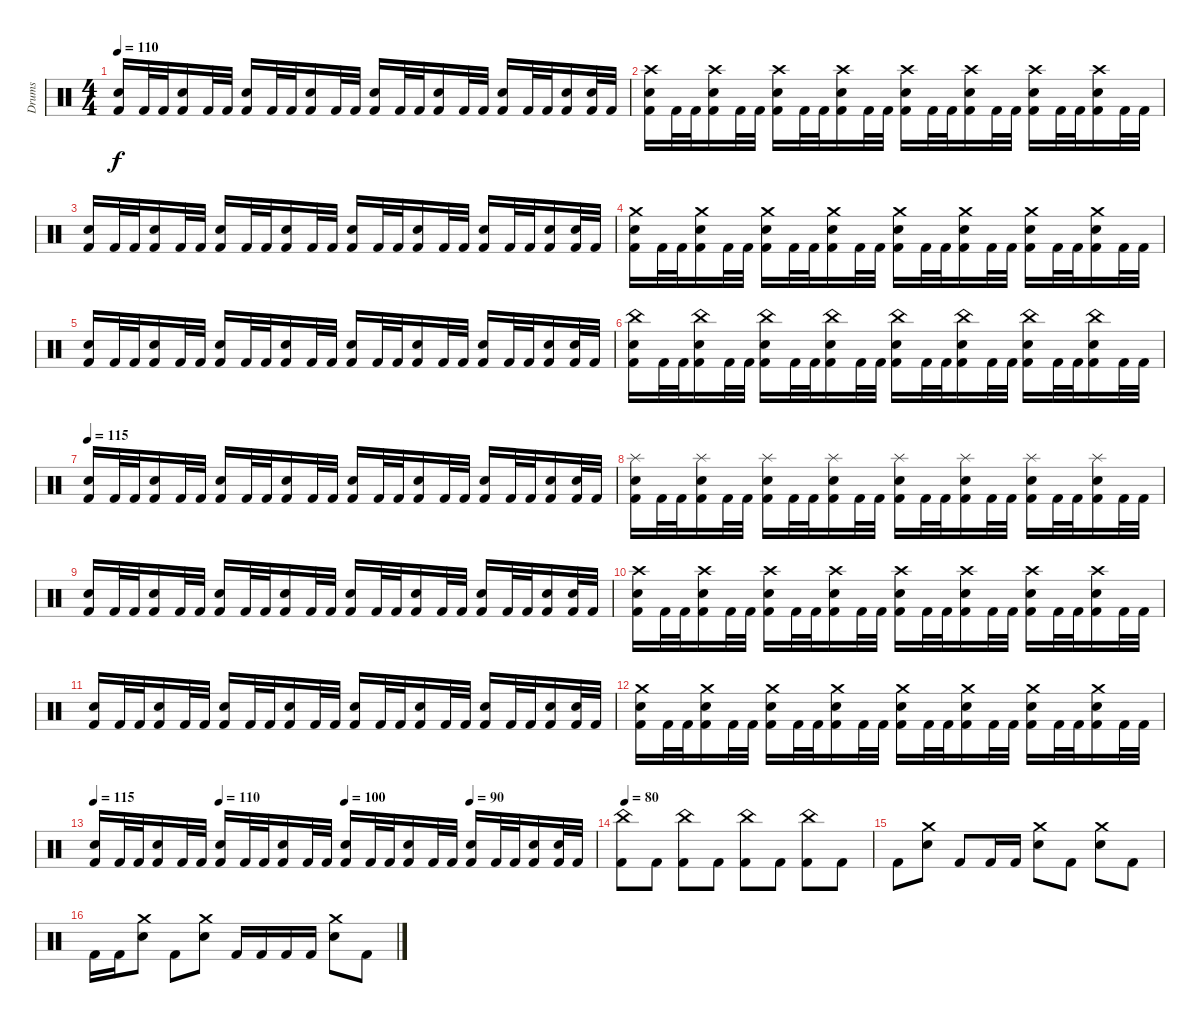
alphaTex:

\track ("Drums" "Drums") {instrument percussion}
\staff {score}
\articulation defaults
\ts (4 4)
\tempo 110
\clef neutral
\ks c
("Electric Snare (hit)" "Kick (hit) 2").16{dy f} "Kick (hit) 2".32 "Kick (hit) 2".32 ("Electric Snare (hit)" "Kick (hit) 2").16 "Kick (hit) 2".32 "Kick (hit) 2".32 ("Electric Snare (hit)" "Kick (hit) 2").16 "Kick (hit) 2".32 "Kick (hit) 2".32 ("Electric Snare (hit)" "Kick (hit) 2").16 "Kick (hit) 2".32 "Kick (hit) 2".32 ("Electric Snare (hit)" "Kick (hit) 2").16 "Kick (hit) 2".32 "Kick (hit) 2".32 ("Electric Snare (hit)" "Kick (hit) 2").16 "Kick (hit) 2".32 "Kick (hit) 2".32 ("Electric Snare (hit)" "Kick (hit) 2").16 "Kick (hit) 2".32 "Kick (hit) 2".32 ("Electric Snare (hit)" "Kick (hit) 2").16 ("Electric Snare (hit)" "Kick (hit) 2").32 "Kick (hit) 2".32 |
("Crash high (hit)" "Electric Snare (hit)" "Kick (hit) 2").16 "Kick (hit) 2".32 "Kick (hit) 2".32 ("Crash high (hit)" "Electric Snare (hit)" "Kick (hit) 2").16 "Kick (hit) 2".32 "Kick (hit) 2".32 ("Crash high (hit)" "Electric Snare (hit)" "Kick (hit) 2").16 "Kick (hit) 2".32 "Kick (hit) 2".32 ("Crash high (hit)" "Electric Snare (hit)" "Kick (hit) 2").16 "Kick (hit) 2".32 "Kick (hit) 2".32 ("Crash high (hit)" "Electric Snare (hit)" "Kick (hit) 2").16 "Kick (hit) 2".32 "Kick (hit) 2".32 ("Crash high (hit)" "Electric Snare (hit)" "Kick (hit) 2").16 "Kick (hit) 2".32 "Kick (hit) 2".32 ("Crash high (hit)" "Electric Snare (hit)" "Kick (hit) 2").16 "Kick (hit) 2".32 "Kick (hit) 2".32 ("Crash high (hit)" "Electric Snare (hit)" "Kick (hit) 2").16 "Kick (hit) 2".32 "Kick (hit) 2".32 |
("Electric Snare (hit)" "Kick (hit) 2").16 "Kick (hit) 2".32 "Kick (hit) 2".32 ("Electric Snare (hit)" "Kick (hit) 2").16 "Kick (hit) 2".32 "Kick (hit) 2".32 ("Electric Snare (hit)" "Kick (hit) 2").16 "Kick (hit) 2".32 "Kick (hit) 2".32 ("Electric Snare (hit)" "Kick (hit) 2").16 "Kick (hit) 2".32 "Kick (hit) 2".32 ("Electric Snare (hit)" "Kick (hit) 2").16 "Kick (hit) 2".32 "Kick (hit) 2".32 ("Electric Snare (hit)" "Kick (hit) 2").16 "Kick (hit) 2".32 "Kick (hit) 2".32 ("Electric Snare (hit)" "Kick (hit) 2").16 "Kick (hit) 2".32 "Kick (hit) 2".32 ("Electric Snare (hit)" "Kick (hit) 2").16 ("Electric Snare (hit)" "Kick (hit) 2").32 "Kick (hit) 2".32 |
("Crash medium (hit)" "Electric Snare (hit)" "Kick (hit) 2").16 "Kick (hit) 2".32 "Kick (hit) 2".32 ("Crash medium (hit)" "Electric Snare (hit)" "Kick (hit) 2").16 "Kick (hit) 2".32 "Kick (hit) 2".32 ("Crash medium (hit)" "Electric Snare (hit)" "Kick (hit) 2").16 "Kick (hit) 2".32 "Kick (hit) 2".32 ("Crash medium (hit)" "Electric Snare (hit)" "Kick (hit) 2").16 "Kick (hit) 2".32 "Kick (hit) 2".32 ("Crash medium (hit)" "Electric Snare (hit)" "Kick (hit) 2").16 "Kick (hit) 2".32 "Kick (hit) 2".32 ("Crash medium (hit)" "Electric Snare (hit)" "Kick (hit) 2").16 "Kick (hit) 2".32 "Kick (hit) 2".32 ("Crash medium (hit)" "Electric Snare (hit)" "Kick (hit) 2").16 "Kick (hit) 2".32 "Kick (hit) 2".32 ("Crash medium (hit)" "Electric Snare (hit)" "Kick (hit) 2").16 "Kick (hit) 2".32 "Kick (hit) 2".32 |
("Electric Snare (hit)" "Kick (hit) 2").16 "Kick (hit) 2".32 "Kick (hit) 2".32 ("Electric Snare (hit)" "Kick (hit) 2").16 "Kick (hit) 2".32 "Kick (hit) 2".32 ("Electric Snare (hit)" "Kick (hit) 2").16 "Kick (hit) 2".32 "Kick (hit) 2".32 ("Electric Snare (hit)" "Kick (hit) 2").16 "Kick (hit) 2".32 "Kick (hit) 2".32 ("Electric Snare (hit)" "Kick (hit) 2").16 "Kick (hit) 2".32 "Kick (hit) 2".32 ("Electric Snare (hit)" "Kick (hit) 2").16 "Kick (hit) 2".32 "Kick (hit) 2".32 ("Electric Snare (hit)" "Kick (hit) 2").16 "Kick (hit) 2".32 "Kick (hit) 2".32 ("Electric Snare (hit)" "Kick (hit) 2").16 ("Electric Snare (hit)" "Kick (hit) 2").32 "Kick (hit) 2".32 |
("China (hit)" "Electric Snare (hit)" "Kick (hit) 2").16 "Kick (hit) 2".32 "Kick (hit) 2".32 ("China (hit)" "Electric Snare (hit)" "Kick (hit) 2").16 "Kick (hit) 2".32 "Kick (hit) 2".32 ("China (hit)" "Electric Snare (hit)" "Kick (hit) 2").16 "Kick (hit) 2".32 "Kick (hit) 2".32 ("China (hit)" "Electric Snare (hit)" "Kick (hit) 2").16 "Kick (hit) 2".32 "Kick (hit) 2".32 ("China (hit)" "Electric Snare (hit)" "Kick (hit) 2").16 "Kick (hit) 2".32 "Kick (hit) 2".32 ("China (hit)" "Electric Snare (hit)" "Kick (hit) 2").16 "Kick (hit) 2".32 "Kick (hit) 2".32 ("China (hit)" "Electric Snare (hit)" "Kick (hit) 2").16 "Kick (hit) 2".32 "Kick (hit) 2".32 ("China (hit)" "Electric Snare (hit)" "Kick (hit) 2").16 "Kick (hit) 2".32 "Kick (hit) 2".32 |
\tempo 115
("Electric Snare (hit)" "Kick (hit) 2").16 "Kick (hit) 2".32 "Kick (hit) 2".32 ("Electric Snare (hit)" "Kick (hit) 2").16 "Kick (hit) 2".32 "Kick (hit) 2".32 ("Electric Snare (hit)" "Kick (hit) 2").16 "Kick (hit) 2".32 "Kick (hit) 2".32 ("Electric Snare (hit)" "Kick (hit) 2").16 "Kick (hit) 2".32 "Kick (hit) 2".32 ("Electric Snare (hit)" "Kick (hit) 2").16 "Kick (hit) 2".32 "Kick (hit) 2".32 ("Electric Snare (hit)" "Kick (hit) 2").16 "Kick (hit) 2".32 "Kick (hit) 2".32 ("Electric Snare (hit)" "Kick (hit) 2").16 "Kick (hit) 2".32 "Kick (hit) 2".32 ("Electric Snare (hit)" "Kick (hit) 2").16 ("Electric Snare (hit)" "Kick (hit) 2").32 "Kick (hit) 2".32 |
("Splash (hit)" "Electric Snare (hit)" "Kick (hit) 2").16 "Kick (hit) 2".32 "Kick (hit) 2".32 ("Splash (hit)" "Electric Snare (hit)" "Kick (hit) 2").16 "Kick (hit) 2".32 "Kick (hit) 2".32 ("Splash (hit)" "Electric Snare (hit)" "Kick (hit) 2").16 "Kick (hit) 2".32 "Kick (hit) 2".32 ("Splash (hit)" "Electric Snare (hit)" "Kick (hit) 2").16 "Kick (hit) 2".32 "Kick (hit) 2".32 ("Splash (hit)" "Electric Snare (hit)" "Kick (hit) 2").16 "Kick (hit) 2".32 "Kick (hit) 2".32 ("Splash (hit)" "Electric Snare (hit)" "Kick (hit) 2").16 "Kick (hit) 2".32 "Kick (hit) 2".32 ("Splash (hit)" "Electric Snare (hit)" "Kick (hit) 2").16 "Kick (hit) 2".32 "Kick (hit) 2".32 ("Splash (hit)" "Electric Snare (hit)" "Kick (hit) 2").16 "Kick (hit) 2".32 "Kick (hit) 2".32 |
("Electric Snare (hit)" "Kick (hit) 2").16 "Kick (hit) 2".32 "Kick (hit) 2".32 ("Electric Snare (hit)" "Kick (hit) 2").16 "Kick (hit) 2".32 "Kick (hit) 2".32 ("Electric Snare (hit)" "Kick (hit) 2").16 "Kick (hit) 2".32 "Kick (hit) 2".32 ("Electric Snare (hit)" "Kick (hit) 2").16 "Kick (hit) 2".32 "Kick (hit) 2".32 ("Electric Snare (hit)" "Kick (hit) 2").16 "Kick (hit) 2".32 "Kick (hit) 2".32 ("Electric Snare (hit)" "Kick (hit) 2").16 "Kick (hit) 2".32 "Kick (hit) 2".32 ("Electric Snare (hit)" "Kick (hit) 2").16 "Kick (hit) 2".32 "Kick (hit) 2".32 ("Electric Snare (hit)" "Kick (hit) 2").16 ("Electric Snare (hit)" "Kick (hit) 2").32 "Kick (hit) 2".32 |
("Crash high (hit)" "Electric Snare (hit)" "Kick (hit) 2").16 "Kick (hit) 2".32 "Kick (hit) 2".32 ("Crash high (hit)" "Electric Snare (hit)" "Kick (hit) 2").16 "Kick (hit) 2".32 "Kick (hit) 2".32 ("Crash high (hit)" "Electric Snare (hit)" "Kick (hit) 2").16 "Kick (hit) 2".32 "Kick (hit) 2".32 ("Crash high (hit)" "Electric Snare (hit)" "Kick (hit) 2").16 "Kick (hit) 2".32 "Kick (hit) 2".32 ("Crash high (hit)" "Electric Snare (hit)" "Kick (hit) 2").16 "Kick (hit) 2".32 "Kick (hit) 2".32 ("Crash high (hit)" "Electric Snare (hit)" "Kick (hit) 2").16 "Kick (hit) 2".32 "Kick (hit) 2".32 ("Crash high (hit)" "Electric Snare (hit)" "Kick (hit) 2").16 "Kick (hit) 2".32 "Kick (hit) 2".32 ("Crash high (hit)" "Electric Snare (hit)" "Kick (hit) 2").16 "Kick (hit) 2".32 "Kick (hit) 2".32 |
("Electric Snare (hit)" "Kick (hit) 2").16 "Kick (hit) 2".32 "Kick (hit) 2".32 ("Electric Snare (hit)" "Kick (hit) 2").16 "Kick (hit) 2".32 "Kick (hit) 2".32 ("Electric Snare (hit)" "Kick (hit) 2").16 "Kick (hit) 2".32 "Kick (hit) 2".32 ("Electric Snare (hit)" "Kick (hit) 2").16 "Kick (hit) 2".32 "Kick (hit) 2".32 ("Electric Snare (hit)" "Kick (hit) 2").16 "Kick (hit) 2".32 "Kick (hit) 2".32 ("Electric Snare (hit)" "Kick (hit) 2").16 "Kick (hit) 2".32 "Kick (hit) 2".32 ("Electric Snare (hit)" "Kick (hit) 2").16 "Kick (hit) 2".32 "Kick (hit) 2".32 ("Electric Snare (hit)" "Kick (hit) 2").16 ("Electric Snare (hit)" "Kick (hit) 2").32 "Kick (hit) 2".32 |
("Crash medium (hit)" "Electric Snare (hit)" "Kick (hit) 2").16 "Kick (hit) 2".32 "Kick (hit) 2".32 ("Crash medium (hit)" "Electric Snare (hit)" "Kick (hit) 2").16 "Kick (hit) 2".32 "Kick (hit) 2".32 ("Crash medium (hit)" "Electric Snare (hit)" "Kick (hit) 2").16 "Kick (hit) 2".32 "Kick (hit) 2".32 ("Crash medium (hit)" "Electric Snare (hit)" "Kick (hit) 2").16 "Kick (hit) 2".32 "Kick (hit) 2".32 ("Crash medium (hit)" "Electric Snare (hit)" "Kick (hit) 2").16 "Kick (hit) 2".32 "Kick (hit) 2".32 ("Crash medium (hit)" "Electric Snare (hit)" "Kick (hit) 2").16 "Kick (hit) 2".32 "Kick (hit) 2".32 ("Crash medium (hit)" "Electric Snare (hit)" "Kick (hit) 2").16 "Kick (hit) 2".32 "Kick (hit) 2".32 ("Crash medium (hit)" "Electric Snare (hit)" "Kick (hit) 2").16 "Kick (hit) 2".32 "Kick (hit) 2".32 |
\tempo 115
\tempo (110 0.25)
\tempo (100 0.5)
\tempo (90 0.75)
("Electric Snare (hit)" "Kick (hit) 2").16 "Kick (hit) 2".32 "Kick (hit) 2".32 ("Electric Snare (hit)" "Kick (hit) 2").16 "Kick (hit) 2".32 "Kick (hit) 2".32 ("Electric Snare (hit)" "Kick (hit) 2").16 "Kick (hit) 2".32 "Kick (hit) 2".32 ("Electric Snare (hit)" "Kick (hit) 2").16 "Kick (hit) 2".32 "Kick (hit) 2".32 ("Electric Snare (hit)" "Kick (hit) 2").16 "Kick (hit) 2".32 "Kick (hit) 2".32 ("Electric Snare (hit)" "Kick (hit) 2").16 "Kick (hit) 2".32 "Kick (hit) 2".32 ("Electric Snare (hit)" "Kick (hit) 2").16 "Kick (hit) 2".32 "Kick (hit) 2".32 ("Electric Snare (hit)" "Kick (hit) 2").16 ("Electric Snare (hit)" "Kick (hit) 2").32 "Kick (hit) 2".32 |
\tempo 80
("China (hit)" "Kick (hit) 2").8 "Kick (hit) 2".8 ("China (hit)" "Kick (hit) 2").8 "Kick (hit) 2".8 ("China (hit)" "Kick (hit) 2").8 "Kick (hit) 2".8 ("China (hit)" "Kick (hit) 2").8 "Kick (hit) 2".8 |
"Kick (hit) 2".8 ("Crash medium (hit)" "Electric Snare (hit)").8 "Kick (hit) 2".8 "Kick (hit) 2".16 "Kick (hit) 2".16 ("Crash medium (hit)" "Electric Snare (hit)").8 "Kick (hit) 2".8 ("Crash medium (hit)" "Electric Snare (hit)").8 "Kick (hit) 2".8 |
"Kick (hit) 2".16 "Kick (hit) 2".16 ("Crash medium (hit)" "Electric Snare (hit)").8 "Kick (hit) 2".8 ("Crash medium (hit)" "Electric Snare (hit)").8 "Kick (hit) 2".16 "Kick (hit) 2".16 "Kick (hit) 2".16 "Kick (hit) 2".16 ("Crash medium (hit)" "Electric Snare (hit)").8 "Kick (hit) 2".8
